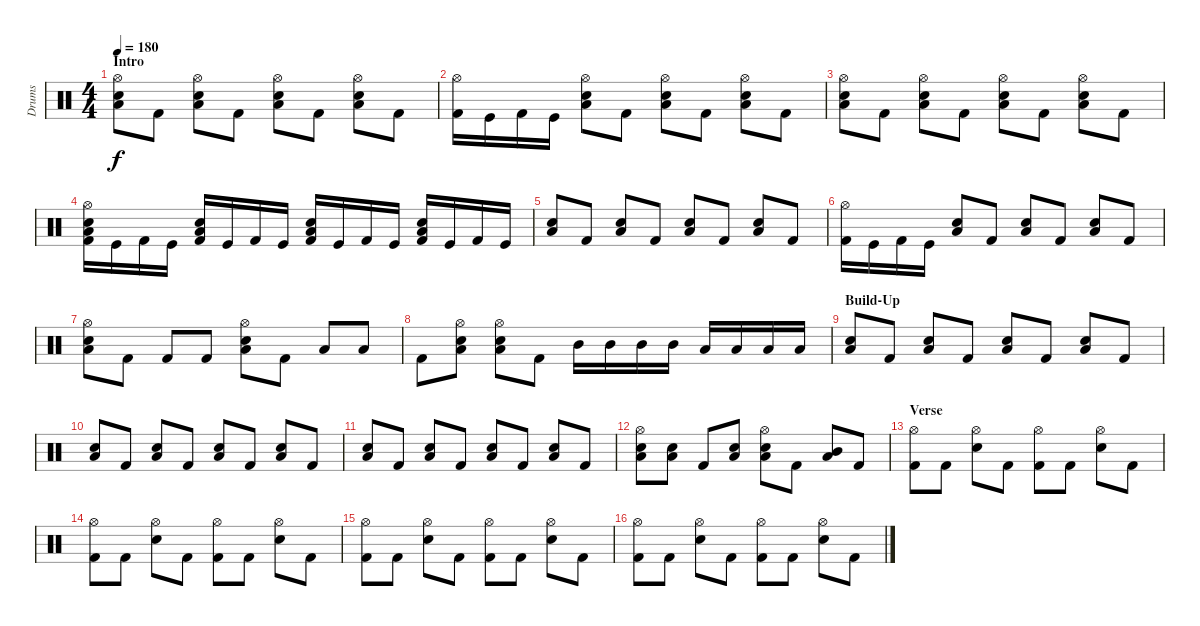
\track ("Drums" "Drums") {instrument percussion}
\staff {score}
\articulation defaults
\ts (4 4)
\section ("" "Intro")
\tempo 180
\clef neutral
\ks c
("Hi-Hat (open)" "Electric Snare (hit)" "Low Tom (hit)").8{dy f} "Kick (hit) 2".8 ("Hi-Hat (open)" "Electric Snare (hit)" "Low Tom (hit)").8 "Kick (hit) 2".8 ("Hi-Hat (open)" "Electric Snare (hit)" "Low Tom (hit)").8 "Kick (hit) 2".8 ("Hi-Hat (open)" "Electric Snare (hit)" "Low Tom (hit)").8 "Kick (hit) 2".8 |
("Hi-Hat (open)" "Kick (hit) 2").16 "Kick (hit)".16 "Kick (hit) 2".16 "Kick (hit)".16 ("Hi-Hat (open)" "Electric Snare (hit)" "Low Tom (hit)").8 "Kick (hit) 2".8 ("Hi-Hat (open)" "Electric Snare (hit)" "Low Tom (hit)").8 "Kick (hit) 2".8 ("Hi-Hat (open)" "Electric Snare (hit)" "Low Tom (hit)").8 "Kick (hit) 2".8 |
("Hi-Hat (open)" "Electric Snare (hit)" "Low Tom (hit)").8 "Kick (hit) 2".8 ("Hi-Hat (open)" "Electric Snare (hit)" "Low Tom (hit)").8 "Kick (hit) 2".8 ("Hi-Hat (open)" "Electric Snare (hit)" "Low Tom (hit)").8 "Kick (hit) 2".8 ("Hi-Hat (open)" "Electric Snare (hit)" "Low Tom (hit)").8 "Kick (hit) 2".8 |
("Hi-Hat (open)" "Electric Snare (hit)" "Low Tom (hit)" "Kick (hit) 2").16 "Kick (hit)".16 "Kick (hit) 2".16 "Kick (hit)".16 ("Electric Snare (hit)" "Low Tom (hit)" "Kick (hit) 2").16 "Kick (hit)".16 "Kick (hit) 2".16 "Kick (hit)".16 ("Electric Snare (hit)" "Low Tom (hit)" "Kick (hit) 2").16 "Kick (hit)".16 "Kick (hit) 2".16 "Kick (hit)".16 ("Electric Snare (hit)" "Low Tom (hit)" "Kick (hit) 2").16 "Kick (hit)".16 "Kick (hit) 2".16 "Kick (hit)".16 |
("Electric Snare (hit)" "Low Tom (hit)").8 "Kick (hit) 2".8 ("Electric Snare (hit)" "Low Tom (hit)").8 "Kick (hit) 2".8 ("Electric Snare (hit)" "Low Tom (hit)").8 "Kick (hit) 2".8 ("Electric Snare (hit)" "Low Tom (hit)").8 "Kick (hit) 2".8 |
("Hi-Hat (open)" "Kick (hit) 2").16 "Kick (hit)".16 "Kick (hit) 2".16 "Kick (hit)".16 ("Electric Snare (hit)" "Low Tom (hit)").8 "Kick (hit) 2".8 ("Electric Snare (hit)" "Low Tom (hit)").8 "Kick (hit) 2".8 ("Electric Snare (hit)" "Low Tom (hit)").8 "Kick (hit) 2".8 |
("Hi-Hat (open)" "Electric Snare (hit)" "Low Tom (hit)").8 "Kick (hit) 2".8 "Kick (hit) 2".8 "Kick (hit) 2".8 ("Hi-Hat (open)" "Electric Snare (hit)" "Low Tom (hit)").8 "Kick (hit) 2".8 "Low Tom (hit)".8 "Low Tom (hit)".8 |
"Kick (hit) 2".8 ("Hi-Hat (open)" "Electric Snare (hit)" "Low Tom (hit)").8 ("Hi-Hat (open)" "Electric Snare (hit)" "Low Tom (hit)").8 "Kick (hit) 2".8 "Mid Tom (hit)".16 "Mid Tom (hit)".16 "Mid Tom (hit)".16 "Mid Tom (hit)".16 "Low Tom (hit)".16 "Low Tom (hit)".16 "Low Tom (hit)".16 "Low Tom (hit)".16 |
\section ("" "Build-Up")
("Electric Snare (hit)" "Low Tom (hit)").8 "Kick (hit) 2".8 ("Electric Snare (hit)" "Low Tom (hit)").8 "Kick (hit) 2".8 ("Electric Snare (hit)" "Low Tom (hit)").8 "Kick (hit) 2".8 ("Electric Snare (hit)" "Low Tom (hit)").8 "Kick (hit) 2".8 |
("Electric Snare (hit)" "Low Tom (hit)").8 "Kick (hit) 2".8 ("Electric Snare (hit)" "Low Tom (hit)").8 "Kick (hit) 2".8 ("Electric Snare (hit)" "Low Tom (hit)").8 "Kick (hit) 2".8 ("Electric Snare (hit)" "Low Tom (hit)").8 "Kick (hit) 2".8 |
("Electric Snare (hit)" "Low Tom (hit)").8 "Kick (hit) 2".8 ("Electric Snare (hit)" "Low Tom (hit)").8 "Kick (hit) 2".8 ("Electric Snare (hit)" "Low Tom (hit)").8 "Kick (hit) 2".8 ("Electric Snare (hit)" "Low Tom (hit)").8 "Kick (hit) 2".8 |
("Hi-Hat (open)" "Electric Snare (hit)" "Low Tom (hit)").8 ("Electric Snare (hit)" "Low Tom (hit)").8 "Kick (hit) 2".8 ("Electric Snare (hit)" "Low Tom (hit)").8 ("Hi-Hat (open)" "Electric Snare (hit)" "Low Tom (hit)").8 "Kick (hit) 2".8 ("Mid Tom (hit)" "Low Tom (hit)").8 "Kick (hit) 2".8 |
\section ("" "Verse")
("Hi-Hat (open)" "Kick (hit) 2").8 "Kick (hit) 2".8 ("Hi-Hat (open)" "Electric Snare (hit)").8 "Kick (hit) 2".8 ("Hi-Hat (open)" "Kick (hit) 2").8 "Kick (hit) 2".8 ("Hi-Hat (open)" "Electric Snare (hit)").8 "Kick (hit) 2".8 |
("Hi-Hat (open)" "Kick (hit) 2").8 "Kick (hit) 2".8 ("Hi-Hat (open)" "Electric Snare (hit)").8 "Kick (hit) 2".8 ("Hi-Hat (open)" "Kick (hit) 2").8 "Kick (hit) 2".8 ("Hi-Hat (open)" "Electric Snare (hit)").8 "Kick (hit) 2".8 |
("Hi-Hat (open)" "Kick (hit) 2").8 "Kick (hit) 2".8 ("Hi-Hat (open)" "Electric Snare (hit)").8 "Kick (hit) 2".8 ("Hi-Hat (open)" "Kick (hit) 2").8 "Kick (hit) 2".8 ("Hi-Hat (open)" "Electric Snare (hit)").8 "Kick (hit) 2".8 |
("Hi-Hat (open)" "Kick (hit) 2").8 "Kick (hit) 2".8 ("Hi-Hat (open)" "Electric Snare (hit)").8 "Kick (hit) 2".8 ("Hi-Hat (open)" "Kick (hit) 2").8 "Kick (hit) 2".8 ("Hi-Hat (open)" "Electric Snare (hit)").8 "Kick (hit) 2".8
